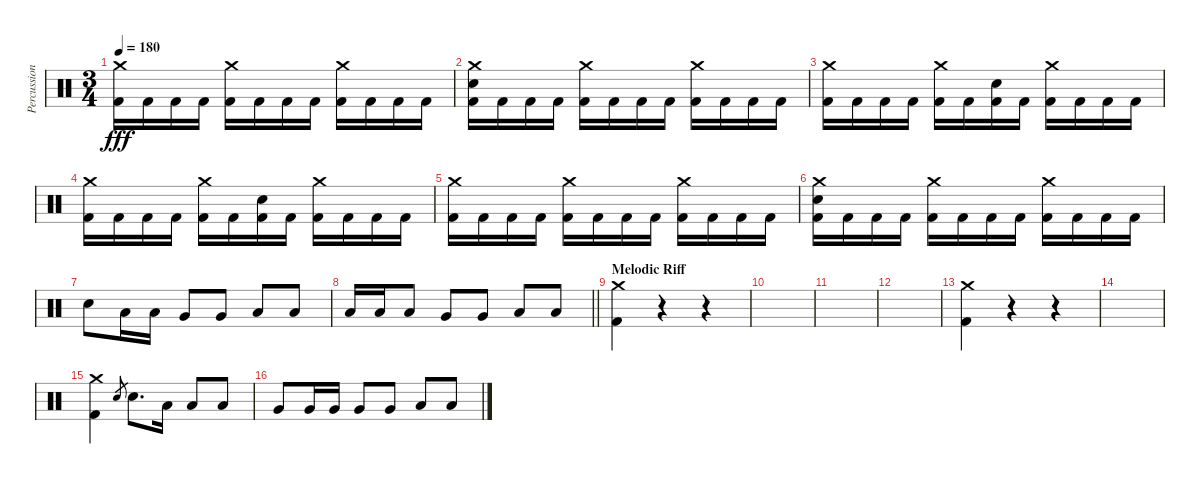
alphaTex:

\track ("Percussion" "Percussion") {instrument percussion}
\staff {score}
\articulation defaults
\ts (3 4)
\tempo 180
\clef neutral
\ks c
("Crash medium (hit)" "Kick (hit) 2").16{dy fff} "Kick (hit) 2".16 "Kick (hit) 2".16 "Kick (hit) 2".16 ("Crash medium (hit)" "Kick (hit) 2").16 "Kick (hit) 2".16 "Kick (hit) 2".16 "Kick (hit) 2".16 ("Crash medium (hit)" "Kick (hit) 2").16 "Kick (hit) 2".16 "Kick (hit) 2".16 "Kick (hit) 2".16 |
("Crash medium (hit)" "Electric Snare (hit)" "Kick (hit) 2").16 "Kick (hit) 2".16 "Kick (hit) 2".16 "Kick (hit) 2".16 ("Crash medium (hit)" "Kick (hit) 2").16 "Kick (hit) 2".16 "Kick (hit) 2".16 "Kick (hit) 2".16 ("Crash medium (hit)" "Kick (hit) 2").16 "Kick (hit) 2".16 "Kick (hit) 2".16 "Kick (hit) 2".16 |
("Crash medium (hit)" "Kick (hit) 2").16 "Kick (hit) 2".16 "Kick (hit) 2".16 "Kick (hit) 2".16 ("Crash medium (hit)" "Kick (hit) 2").16 "Kick (hit) 2".16 ("Electric Snare (hit)" "Kick (hit) 2").16 "Kick (hit) 2".16 ("Crash medium (hit)" "Kick (hit) 2").16 "Kick (hit) 2".16 "Kick (hit) 2".16 "Kick (hit) 2".16 |
("Crash medium (hit)" "Kick (hit) 2").16 "Kick (hit) 2".16 "Kick (hit) 2".16 "Kick (hit) 2".16 ("Crash medium (hit)" "Kick (hit) 2").16 "Kick (hit) 2".16 ("Electric Snare (hit)" "Kick (hit) 2").16 "Kick (hit) 2".16 ("Crash medium (hit)" "Kick (hit) 2").16 "Kick (hit) 2".16 "Kick (hit) 2".16 "Kick (hit) 2".16 |
("Crash medium (hit)" "Kick (hit) 2").16 "Kick (hit) 2".16 "Kick (hit) 2".16 "Kick (hit) 2".16 ("Crash medium (hit)" "Kick (hit) 2").16 "Kick (hit) 2".16 "Kick (hit) 2".16 "Kick (hit) 2".16 ("Crash medium (hit)" "Kick (hit) 2").16 "Kick (hit) 2".16 "Kick (hit) 2".16 "Kick (hit) 2".16 |
("Crash medium (hit)" "Electric Snare (hit)" "Kick (hit) 2").16 "Kick (hit) 2".16 "Kick (hit) 2".16 "Kick (hit) 2".16 ("Crash medium (hit)" "Kick (hit) 2").16 "Kick (hit) 2".16 "Kick (hit) 2".16 "Kick (hit) 2".16 ("Crash medium (hit)" "Kick (hit) 2").16 "Kick (hit) 2".16 "Kick (hit) 2".16 "Kick (hit) 2".16 |
"Electric Snare (hit)".8 "Low Tom (hit)".16 "Low Tom (hit)".16 "Very Low Tom (hit)".8 "Very Low Tom (hit)".8 "Low Floor Tom (hit)".8 "Low Floor Tom (hit)".8 |
\barLineRight lightlight "Low Tom (hit)".16 "Low Tom (hit)".16 "Low Tom (hit)".8 "Very Low Tom (hit)".8 "Very Low Tom (hit)".8 "Low Floor Tom (hit)".8 "Low Floor Tom (hit)".8
|
\section ("" "Melodic Riff")
("Crash medium (hit)" "Kick (hit) 2").4 r.4 r.4 |
|
|
|
("Crash medium (hit)" "Kick (hit) 2").4 r.4 r.4 |
|
("Crash medium (hit)" "Kick (hit) 2").4 "Electric Snare (hit)".8{gr} "Electric Snare (hit)".8{d} "Low Tom (hit)".16 "Low Tom (hit)".8 "Low Tom (hit)".8 |
"Very Low Tom (hit)".8 "Very Low Tom (hit)".16 "Very Low Tom (hit)".16 "Very Low Tom (hit)".8 "Very Low Tom (hit)".8 "Low Floor Tom (hit)".8 "Low Floor Tom (hit)".8
